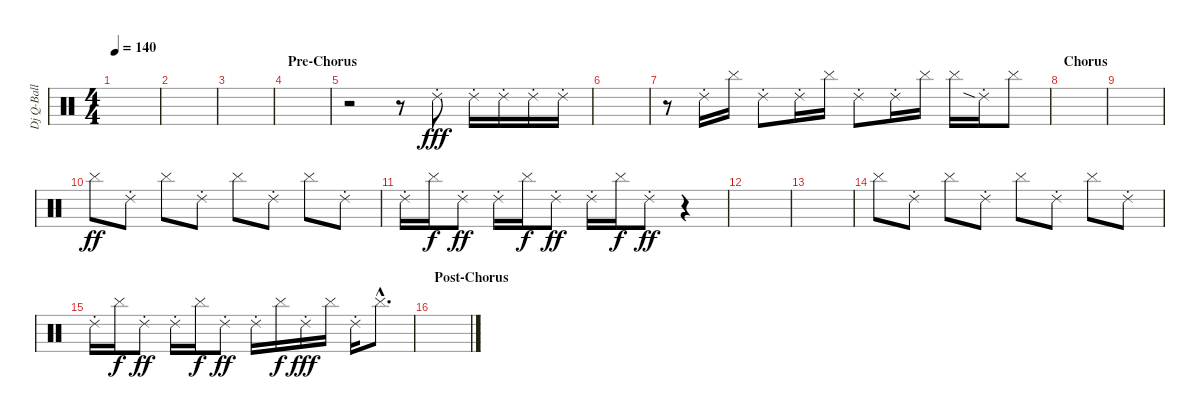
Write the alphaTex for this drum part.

\track ("Dj Q-Ball" "Dj Q-Ball") {instrument percussion}
\staff {score}
\articulation defaults
\ts (4 4)
\tempo 140
\clef neutral
\ks c
|
|
|
\section ("" "Pre-Chorus")
|
r.2 r.8 "Ride (choke) 2".8{dy fff} "Ride (choke) 2".16 "Ride (choke) 2".16 "Ride (choke) 2".16 "Ride (choke) 2".16 |
|
r.8 "Ride (choke) 2".16 "Cymbal (hit)".16 "Ride (choke) 2".8 "Ride (choke) 2".16 "Cymbal (hit)".16 "Ride (choke) 2".8 "Ride (choke) 2".16 "Cymbal (hit)".16 "Cymbal (hit)".16 "Ride (choke) 2"{sia}.16 "Cymbal (hit)".8 |
\section ("" "Chorus")
|
|
"Cymbal (hit)".8{dy ff} "Ride (choke) 2".8 "Cymbal (hit)".8 "Ride (choke) 2".8 "Cymbal (hit)".8 "Ride (choke) 2".8 "Cymbal (hit)".8 "Ride (choke) 2".8 |
"Ride (choke) 2".16 "Cymbal (hit)".16{dy f} "Ride (choke) 2".8{dy ff} "Ride (choke) 2".16 "Cymbal (hit)".16{dy f} "Ride (choke) 2".8{dy ff} "Ride (choke) 2".16 "Cymbal (hit)".16{dy f} "Ride (choke) 2".8{dy ff} r.4 |
|
|
"Cymbal (hit)".8 "Ride (choke) 2".8 "Cymbal (hit)".8 "Ride (choke) 2".8 "Cymbal (hit)".8 "Ride (choke) 2".8 "Cymbal (hit)".8 "Ride (choke) 2".8 |
"Ride (choke) 2".16 "Cymbal (hit)".16{dy f} "Ride (choke) 2".8{dy ff} "Ride (choke) 2".16 "Cymbal (hit)".16{dy f} "Ride (choke) 2".8{dy ff} "Ride (choke) 2".16 "Cymbal (hit)".16{dy f} "Ride (choke) 2".16{dy fff} "Cymbal (hit)".16 "Ride (choke) 2".16 "Cymbal (hit)"{hac}.8{d} |
\section ("" "Post-Chorus")
